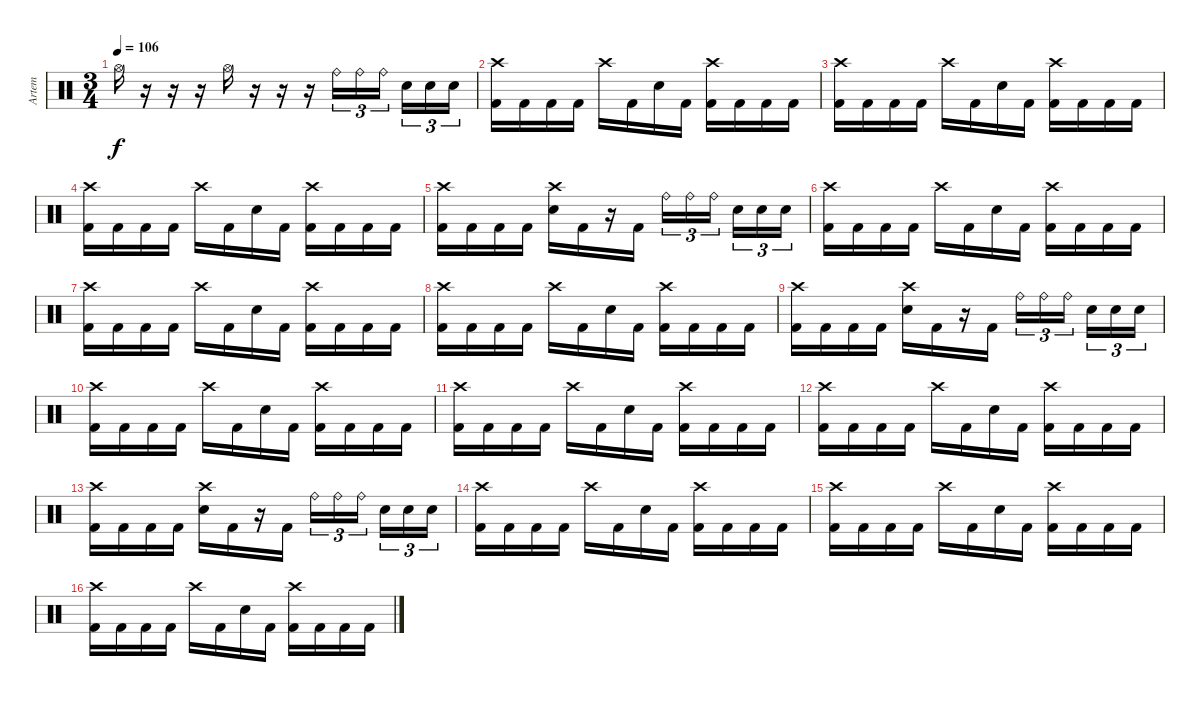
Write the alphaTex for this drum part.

\track ("Artem" "Artem") {instrument percussion}
\staff {score}
\articulation defaults
\ts (3 4)
\tempo 106
\clef neutral
\ks c "Hi-Hat (open)".16{dy f}
r.16 r.16 r.16 "Hi-Hat (open)".16 r.16 r.16 r.16 "Ride (bell)".16{tu (3 2)} "Ride (bell)".16{tu (3 2)} "Ride (bell)".16{tu (3 2) beam splitsecondary} "Snare (hit) 2".16{tu (3 2)} "Snare (hit) 2".16{tu (3 2)} "Snare (hit) 2".16{tu (3 2)} |
("Kick (hit) 2" "Crash high (hit)").16 "Kick (hit) 2".16 "Kick (hit) 2".16 "Kick (hit) 2".16 "Crash high (hit)".16 "Kick (hit) 2".16 "Snare (hit) 2".16 "Kick (hit) 2".16 ("Kick (hit) 2" "Crash high (hit)").16 "Kick (hit) 2".16 "Kick (hit) 2".16 "Kick (hit) 2".16 |
("Kick (hit) 2" "Crash high (hit)").16 "Kick (hit) 2".16 "Kick (hit) 2".16 "Kick (hit) 2".16 "Crash high (hit)".16 "Kick (hit) 2".16 "Snare (hit) 2".16 "Kick (hit) 2".16 ("Kick (hit) 2" "Crash high (hit)").16 "Kick (hit) 2".16 "Kick (hit) 2".16 "Kick (hit) 2".16 |
("Kick (hit) 2" "Crash high (hit)").16 "Kick (hit) 2".16 "Kick (hit) 2".16 "Kick (hit) 2".16 "Crash high (hit)".16 "Kick (hit) 2".16 "Snare (hit) 2".16 "Kick (hit) 2".16 ("Kick (hit) 2" "Crash high (hit)").16 "Kick (hit) 2".16 "Kick (hit) 2".16 "Kick (hit) 2".16 |
("Kick (hit) 2" "Crash high (hit)").16 "Kick (hit) 2".16 "Kick (hit) 2".16 "Kick (hit) 2".16 ("Snare (hit) 2" "Crash high (hit)").16 "Kick (hit) 2".16 r.16 "Kick (hit) 2".16 "Ride (bell)".16{tu (3 2)} "Ride (bell)".16{tu (3 2)} "Ride (bell)".16{tu (3 2) beam splitsecondary} "Snare (hit) 2".16{tu (3 2)} "Snare (hit) 2".16{tu (3 2)} "Snare (hit) 2".16{tu (3 2)} |
("Kick (hit) 2" "Crash high (hit)").16 "Kick (hit) 2".16 "Kick (hit) 2".16 "Kick (hit) 2".16 "Crash high (hit)".16 "Kick (hit) 2".16 "Snare (hit) 2".16 "Kick (hit) 2".16 ("Kick (hit) 2" "Crash high (hit)").16 "Kick (hit) 2".16 "Kick (hit) 2".16 "Kick (hit) 2".16 |
("Kick (hit) 2" "Crash high (hit)").16 "Kick (hit) 2".16 "Kick (hit) 2".16 "Kick (hit) 2".16 "Crash high (hit)".16 "Kick (hit) 2".16 "Snare (hit) 2".16 "Kick (hit) 2".16 ("Kick (hit) 2" "Crash high (hit)").16 "Kick (hit) 2".16 "Kick (hit) 2".16 "Kick (hit) 2".16 |
("Kick (hit) 2" "Crash high (hit)").16 "Kick (hit) 2".16 "Kick (hit) 2".16 "Kick (hit) 2".16 "Crash high (hit)".16 "Kick (hit) 2".16 "Snare (hit) 2".16 "Kick (hit) 2".16 ("Kick (hit) 2" "Crash high (hit)").16 "Kick (hit) 2".16 "Kick (hit) 2".16 "Kick (hit) 2".16 |
("Kick (hit) 2" "Crash high (hit)").16 "Kick (hit) 2".16 "Kick (hit) 2".16 "Kick (hit) 2".16 ("Snare (hit) 2" "Crash high (hit)").16 "Kick (hit) 2".16 r.16 "Kick (hit) 2".16 "Ride (bell)".16{tu (3 2)} "Ride (bell)".16{tu (3 2)} "Ride (bell)".16{tu (3 2) beam splitsecondary} "Snare (hit) 2".16{tu (3 2)} "Snare (hit) 2".16{tu (3 2)} "Snare (hit) 2".16{tu (3 2)} |
("Kick (hit) 2" "Crash high (hit)").16 "Kick (hit) 2".16 "Kick (hit) 2".16 "Kick (hit) 2".16 "Crash high (hit)".16 "Kick (hit) 2".16 "Snare (hit) 2".16 "Kick (hit) 2".16 ("Kick (hit) 2" "Crash high (hit)").16 "Kick (hit) 2".16 "Kick (hit) 2".16 "Kick (hit) 2".16 |
("Kick (hit) 2" "Crash high (hit)").16 "Kick (hit) 2".16 "Kick (hit) 2".16 "Kick (hit) 2".16 "Crash high (hit)".16 "Kick (hit) 2".16 "Snare (hit) 2".16 "Kick (hit) 2".16 ("Kick (hit) 2" "Crash high (hit)").16 "Kick (hit) 2".16 "Kick (hit) 2".16 "Kick (hit) 2".16 |
("Kick (hit) 2" "Crash high (hit)").16 "Kick (hit) 2".16 "Kick (hit) 2".16 "Kick (hit) 2".16 "Crash high (hit)".16 "Kick (hit) 2".16 "Snare (hit) 2".16 "Kick (hit) 2".16 ("Kick (hit) 2" "Crash high (hit)").16 "Kick (hit) 2".16 "Kick (hit) 2".16 "Kick (hit) 2".16 |
("Kick (hit) 2" "Crash high (hit)").16 "Kick (hit) 2".16 "Kick (hit) 2".16 "Kick (hit) 2".16 ("Snare (hit) 2" "Crash high (hit)").16 "Kick (hit) 2".16 r.16 "Kick (hit) 2".16 "Ride (bell)".16{tu (3 2)} "Ride (bell)".16{tu (3 2)} "Ride (bell)".16{tu (3 2) beam splitsecondary} "Snare (hit) 2".16{tu (3 2)} "Snare (hit) 2".16{tu (3 2)} "Snare (hit) 2".16{tu (3 2)} |
("Kick (hit) 2" "Crash high (hit)").16 "Kick (hit) 2".16 "Kick (hit) 2".16 "Kick (hit) 2".16 "Crash high (hit)".16 "Kick (hit) 2".16 "Snare (hit) 2".16 "Kick (hit) 2".16 ("Kick (hit) 2" "Crash high (hit)").16 "Kick (hit) 2".16 "Kick (hit) 2".16 "Kick (hit) 2".16 |
("Kick (hit) 2" "Crash high (hit)").16 "Kick (hit) 2".16 "Kick (hit) 2".16 "Kick (hit) 2".16 "Crash high (hit)".16 "Kick (hit) 2".16 "Snare (hit) 2".16 "Kick (hit) 2".16 ("Kick (hit) 2" "Crash high (hit)").16 "Kick (hit) 2".16 "Kick (hit) 2".16 "Kick (hit) 2".16 |
("Kick (hit) 2" "Crash high (hit)").16 "Kick (hit) 2".16 "Kick (hit) 2".16 "Kick (hit) 2".16 "Crash high (hit)".16 "Kick (hit) 2".16 "Snare (hit) 2".16 "Kick (hit) 2".16 ("Kick (hit) 2" "Crash high (hit)").16 "Kick (hit) 2".16 "Kick (hit) 2".16 "Kick (hit) 2".16
